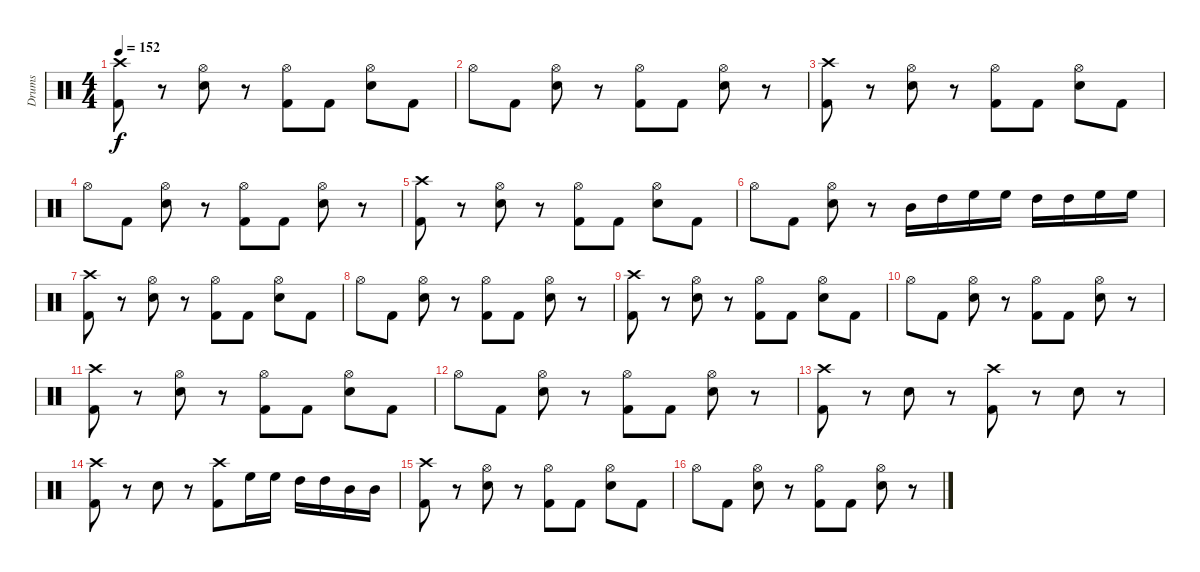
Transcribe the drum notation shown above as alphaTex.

\track ("Drums" "Drums") {instrument percussion}
\staff {score}
\articulation defaults
\ts (4 4)
\tempo 152
\clef neutral
\ks c
("Crash high (hit)" "Kick (hit) 2").8{dy f} r.8 ("Hi-Hat (open)" "Snare (hit) 2").8 r.8 ("Hi-Hat (open)" "Kick (hit) 2").8 "Kick (hit) 2".8 ("Hi-Hat (open)" "Snare (hit) 2").8 "Kick (hit) 2".8 |
"Hi-Hat (open)".8 "Kick (hit) 2".8 ("Hi-Hat (open)" "Snare (hit) 2").8 r.8 ("Hi-Hat (open)" "Kick (hit) 2").8 "Kick (hit) 2".8 ("Hi-Hat (open)" "Snare (hit) 2").8 r.8 |
("Crash high (hit)" "Kick (hit) 2").8 r.8 ("Hi-Hat (open)" "Snare (hit) 2").8 r.8 ("Hi-Hat (open)" "Kick (hit) 2").8 "Kick (hit) 2".8 ("Hi-Hat (open)" "Snare (hit) 2").8 "Kick (hit) 2".8 |
"Hi-Hat (open)".8 "Kick (hit) 2".8 ("Hi-Hat (open)" "Snare (hit) 2").8 r.8 ("Hi-Hat (open)" "Kick (hit) 2").8 "Kick (hit) 2".8 ("Hi-Hat (open)" "Snare (hit) 2").8 r.8 |
("Crash high (hit)" "Kick (hit) 2").8 r.8 ("Hi-Hat (open)" "Snare (hit) 2").8 r.8 ("Hi-Hat (open)" "Kick (hit) 2").8 "Kick (hit) 2".8 ("Hi-Hat (open)" "Snare (hit) 2").8 "Kick (hit) 2".8 |
"Hi-Hat (open)".8 "Kick (hit) 2".8 ("Hi-Hat (open)" "Snare (hit) 2").8 r.8 "Mid Tom (hit)".16 "High Tom (hit)".16 "High Floor Tom (hit)".16 "High Floor Tom (hit)".16 "High Tom (hit)".16 "High Tom (hit)".16 "High Floor Tom (hit)".16 "High Floor Tom (hit)".16 |
("Crash high (hit)" "Kick (hit) 2").8 r.8 ("Hi-Hat (open)" "Snare (hit) 2").8 r.8 ("Hi-Hat (open)" "Kick (hit) 2").8 "Kick (hit) 2".8 ("Hi-Hat (open)" "Snare (hit) 2").8 "Kick (hit) 2".8 |
"Hi-Hat (open)".8 "Kick (hit) 2".8 ("Hi-Hat (open)" "Snare (hit) 2").8 r.8 ("Hi-Hat (open)" "Kick (hit) 2").8 "Kick (hit) 2".8 ("Hi-Hat (open)" "Snare (hit) 2").8 r.8 |
("Crash high (hit)" "Kick (hit) 2").8 r.8 ("Hi-Hat (open)" "Snare (hit) 2").8 r.8 ("Hi-Hat (open)" "Kick (hit) 2").8 "Kick (hit) 2".8 ("Hi-Hat (open)" "Snare (hit) 2").8 "Kick (hit) 2".8 |
"Hi-Hat (open)".8 "Kick (hit) 2".8 ("Hi-Hat (open)" "Snare (hit) 2").8 r.8 ("Hi-Hat (open)" "Kick (hit) 2").8 "Kick (hit) 2".8 ("Hi-Hat (open)" "Snare (hit) 2").8 r.8 |
("Crash high (hit)" "Kick (hit) 2").8 r.8 ("Hi-Hat (open)" "Snare (hit) 2").8 r.8 ("Hi-Hat (open)" "Kick (hit) 2").8 "Kick (hit) 2".8 ("Hi-Hat (open)" "Snare (hit) 2").8 "Kick (hit) 2".8 |
"Hi-Hat (open)".8 "Kick (hit) 2".8 ("Hi-Hat (open)" "Snare (hit) 2").8 r.8 ("Hi-Hat (open)" "Kick (hit) 2").8 "Kick (hit) 2".8 ("Hi-Hat (open)" "Snare (hit) 2").8 r.8 |
("Crash high (hit)" "Kick (hit) 2").8 r.8 "Snare (hit) 2".8 r.8 ("Crash high (hit)" "Kick (hit) 2").8 r.8 "Snare (hit) 2".8 r.8 |
("Crash high (hit)" "Kick (hit) 2").8 r.8 "Snare (hit) 2".8 r.8 ("Crash high (hit)" "Kick (hit) 2").8 "High Floor Tom (hit)".16 "High Floor Tom (hit)".16 "High Tom (hit)".16 "High Tom (hit)".16 "Mid Tom (hit)".16 "Mid Tom (hit)".16 |
("Crash high (hit)" "Kick (hit) 2").8 r.8 ("Hi-Hat (open)" "Snare (hit) 2").8 r.8 ("Hi-Hat (open)" "Kick (hit) 2").8 "Kick (hit) 2".8 ("Hi-Hat (open)" "Snare (hit) 2").8 "Kick (hit) 2".8 |
"Hi-Hat (open)".8 "Kick (hit) 2".8 ("Hi-Hat (open)" "Snare (hit) 2").8 r.8 ("Hi-Hat (open)" "Kick (hit) 2").8 "Kick (hit) 2".8 ("Hi-Hat (open)" "Snare (hit) 2").8 r.8
